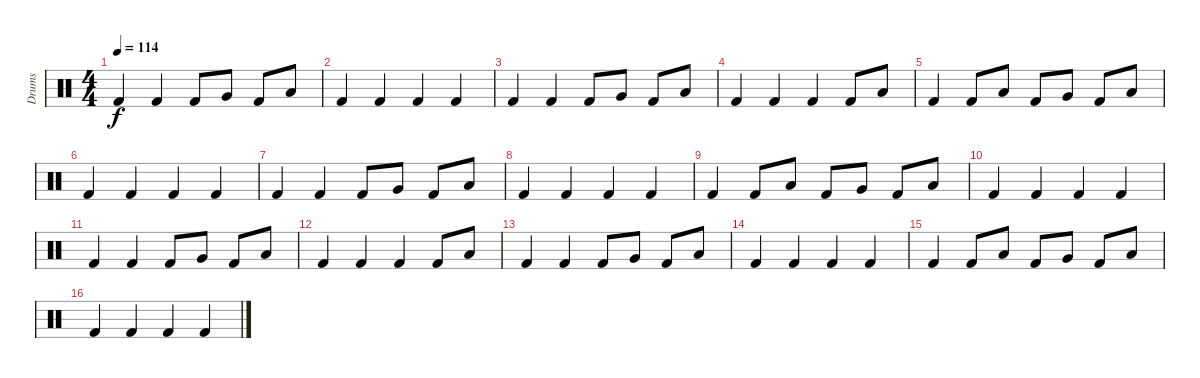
\track ("Drums" "Drums") {instrument percussion}
\staff {score}
\articulation defaults
\ts (4 4)
\tempo 114
\clef neutral
\ks c "Kick (hit) 2".4{dy f} "Kick (hit) 2".4 "Kick (hit) 2".8 "Very Low Tom (hit)".8 "Kick (hit) 2".8 "Low Floor Tom (hit)".8
|
"Kick (hit) 2".4 "Kick (hit) 2".4 "Kick (hit) 2".4 "Kick (hit) 2".4 |
"Kick (hit) 2".4 "Kick (hit) 2".4 "Kick (hit) 2".8 "Very Low Tom (hit)".8 "Kick (hit) 2".8 "Low Floor Tom (hit)".8 |
"Kick (hit) 2".4 "Kick (hit) 2".4 "Kick (hit) 2".4 "Kick (hit) 2".8 "Low Floor Tom (hit)".8 |
"Kick (hit) 2".4 "Kick (hit) 2".8 "Low Floor Tom (hit)".8 "Kick (hit) 2".8 "Very Low Tom (hit)".8 "Kick (hit) 2".8 "Low Floor Tom (hit)".8 |
"Kick (hit) 2".4 "Kick (hit) 2".4 "Kick (hit) 2".4 "Kick (hit) 2".4 |
"Kick (hit) 2".4 "Kick (hit) 2".4 "Kick (hit) 2".8 "Very Low Tom (hit)".8 "Kick (hit) 2".8 "Low Floor Tom (hit)".8 |
"Kick (hit) 2".4 "Kick (hit) 2".4 "Kick (hit) 2".4 "Kick (hit) 2".4 |
"Kick (hit) 2".4 "Kick (hit) 2".8 "Low Floor Tom (hit)".8 "Kick (hit) 2".8 "Very Low Tom (hit)".8 "Kick (hit) 2".8 "Low Floor Tom (hit)".8 |
"Kick (hit) 2".4 "Kick (hit) 2".4 "Kick (hit) 2".4 "Kick (hit) 2".4 |
"Kick (hit) 2".4 "Kick (hit) 2".4 "Kick (hit) 2".8 "Very Low Tom (hit)".8 "Kick (hit) 2".8 "Low Floor Tom (hit)".8 |
"Kick (hit) 2".4 "Kick (hit) 2".4 "Kick (hit) 2".4 "Kick (hit) 2".8 "Low Floor Tom (hit)".8 |
"Kick (hit) 2".4 "Kick (hit) 2".4 "Kick (hit) 2".8 "Very Low Tom (hit)".8 "Kick (hit) 2".8 "Low Floor Tom (hit)".8 |
"Kick (hit) 2".4 "Kick (hit) 2".4 "Kick (hit) 2".4 "Kick (hit) 2".4 |
"Kick (hit) 2".4 "Kick (hit) 2".8 "Low Tom (hit)".8 "Kick (hit) 2".8 "Very Low Tom (hit)".8 "Kick (hit) 2".8 "Low Floor Tom (hit)".8 |
"Kick (hit) 2".4 "Kick (hit) 2".4 "Kick (hit) 2".4 "Kick (hit) 2".4
